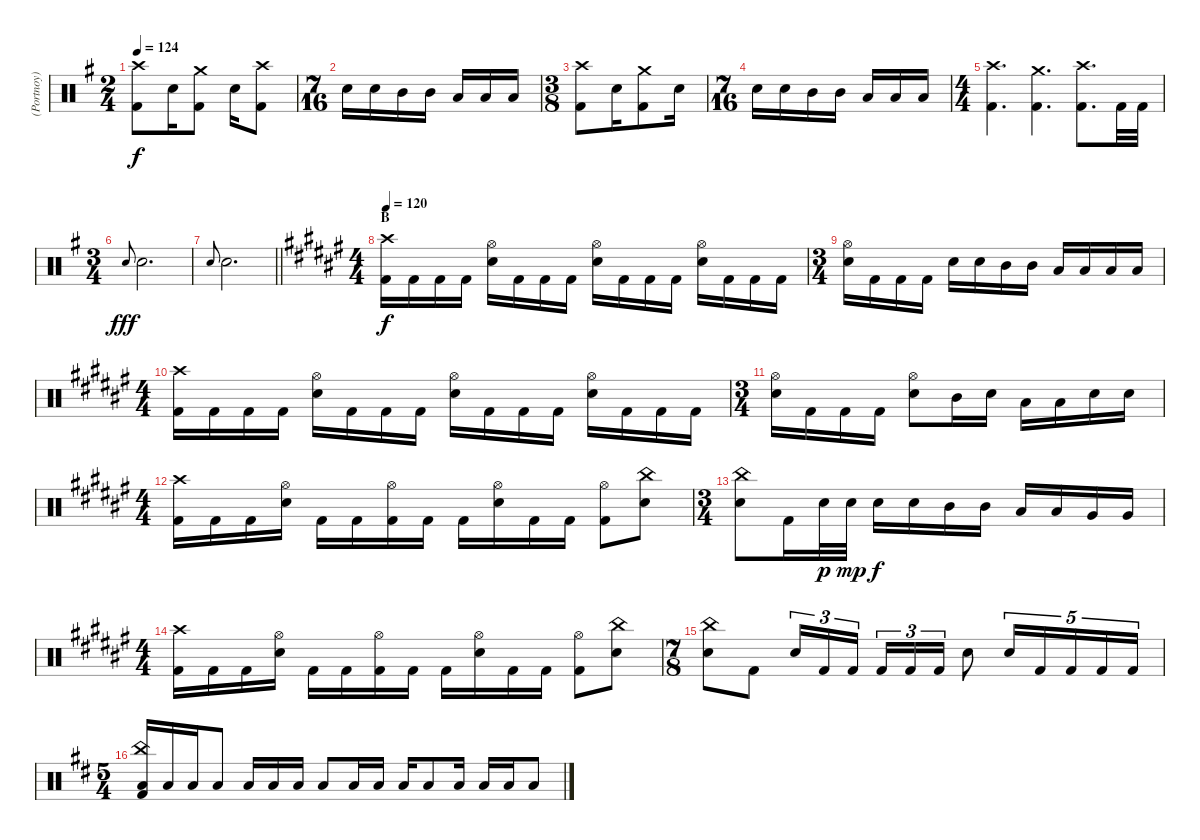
\track ("(Portnoy) Drums" "(Portnoy) ") {instrument percussion}
\staff {score}
\articulation defaults
\ts (2 4)
\tempo 124
\clef neutral
\ks g
("Crash high (hit)" "Kick (hit) 2").8{dy f} "Snare (hit) 2".16 ("Crash medium (hit)" "Kick (hit) 2").8 "Snare (hit) 2".16 ("Crash high (hit)" "Kick (hit) 2").8 |
\ts (7 16)
"Snare (hit) 2".16 "Snare (hit) 2".16 "Mid Tom (hit)".16 "Mid Tom (hit)".16 "Low Tom (hit)".16 "Low Tom (hit)".16 "Low Tom (hit)".16 |
\ts (3 8)
("Crash high (hit)" "Kick (hit) 2").8 "Snare (hit) 2".16 ("Crash medium (hit)" "Kick (hit) 2").8 "Snare (hit) 2".16 |
\ts (7 16)
"Snare (hit) 2".16 "Snare (hit) 2".16 "Mid Tom (hit)".16 "Mid Tom (hit)".16 "Low Tom (hit)".16 "Low Tom (hit)".16 "Low Tom (hit)".16 |
\ts (4 4)
("Crash high (hit)" "Kick (hit) 2").4{d} ("Crash medium (hit)" "Kick (hit) 2").4{d} ("Crash high (hit)" "Kick (hit) 2").8{d} "Kick (hit) 2".32 "Kick (hit) 2".32 |
\ts (3 4)
"Snare (hit) 2".8{gr onbeat dy fff} "Snare (hit) 2".2{d} |
\barLineRight lightlight "Snare (hit) 2".8{gr onbeat} "Snare (hit) 2".2{d}
|
\ts (4 4)
\section ("" "B")
\tempo 120
\ks f#
("Crash high (hit)" "Kick (hit) 2").16{dy f} "Kick (hit) 2".16 "Kick (hit) 2".16 "Kick (hit) 2".16 ("Hi-Hat (open)" "Snare (hit) 2").16 "Kick (hit) 2".16 "Kick (hit) 2".16 "Kick (hit) 2".16 ("Hi-Hat (open)" "Snare (hit) 2").16 "Kick (hit) 2".16 "Kick (hit) 2".16 "Kick (hit) 2".16 ("Hi-Hat (open)" "Snare (hit) 2").16 "Kick (hit) 2".16 "Kick (hit) 2".16 "Kick (hit) 2".16 |
\ts (3 4)
("Hi-Hat (open)" "Snare (hit) 2").16 "Kick (hit) 2".16 "Kick (hit) 2".16 "Kick (hit) 2".16 "Snare (hit) 2".16 "Snare (hit) 2".16 "Mid Tom (hit)".16 "Mid Tom (hit)".16 "Low Tom (hit)".16 "Low Tom (hit)".16 "Low Tom (hit)".16 "Low Tom (hit)".16 |
\ts (4 4)
("Crash high (hit)" "Kick (hit) 2").16 "Kick (hit) 2".16 "Kick (hit) 2".16 "Kick (hit) 2".16 ("Hi-Hat (open)" "Snare (hit) 2").16 "Kick (hit) 2".16 "Kick (hit) 2".16 "Kick (hit) 2".16 ("Hi-Hat (open)" "Snare (hit) 2").16 "Kick (hit) 2".16 "Kick (hit) 2".16 "Kick (hit) 2".16 ("Hi-Hat (open)" "Snare (hit) 2").16 "Kick (hit) 2".16 "Kick (hit) 2".16 "Kick (hit) 2".16 |
\ts (3 4)
("Hi-Hat (open)" "Snare (hit) 2").16 "Kick (hit) 2".16 "Kick (hit) 2".16 "Kick (hit) 2".16 ("Hi-Hat (open)" "Snare (hit) 2").8 "Mid Tom (hit)".16 "Snare (hit) 2".16 "Low Tom (hit)".16 "Low Tom (hit)".16 "Snare (hit) 2".16 "Snare (hit) 2".16 |
\ts (4 4)
("Crash high (hit)" "Kick (hit) 2").16 "Kick (hit) 2".16 "Kick (hit) 2".16 ("Hi-Hat (open)" "Snare (hit) 2").16 "Kick (hit) 2".16 "Kick (hit) 2".16 ("Hi-Hat (open)" "Kick (hit) 2").16 "Kick (hit) 2".16 "Kick (hit) 2".16 ("Hi-Hat (open)" "Snare (hit) 2").16 "Kick (hit) 2".16 "Kick (hit) 2".16 ("Hi-Hat (open)" "Kick (hit) 2").8 ("China (hit)" "Snare (hit) 2").8 |
\ts (3 4)
("China (hit)" "Snare (hit) 2").8 "Kick (hit) 2".16 "Snare (hit) 2".32{dy p} "Snare (hit) 2".32{dy mp} "Snare (hit) 2".16{dy f} "Snare (hit) 2".16 "Mid Tom (hit)".16 "Mid Tom (hit)".16 "Low Tom (hit)".16 "Low Tom (hit)".16 "Very Low Tom (hit)".16 "Very Low Tom (hit)".16 |
\ts (4 4)
("Crash high (hit)" "Kick (hit) 2").16 "Kick (hit) 2".16 "Kick (hit) 2".16 ("Hi-Hat (open)" "Snare (hit) 2").16 "Kick (hit) 2".16 "Kick (hit) 2".16 ("Hi-Hat (open)" "Kick (hit) 2").16 "Kick (hit) 2".16 "Kick (hit) 2".16 ("Hi-Hat (open)" "Snare (hit) 2").16 "Kick (hit) 2".16 "Kick (hit) 2".16 ("Hi-Hat (open)" "Kick (hit) 2").8 ("China (hit)" "Snare (hit) 2").8 |
\ts (7 8)
("China (hit)" "Snare (hit) 2").8 "Kick (hit) 2".8 "Snare (hit) 2".16{tu (3 2)} "Kick (hit) 2".16{tu (3 2)} "Kick (hit) 2".16{tu (3 2)} "Kick (hit) 2".16{tu (3 2)} "Kick (hit) 2".16{tu (3 2)} "Kick (hit) 2".16{tu (3 2)} "Snare (hit) 2".8 "Snare (hit) 2".16{tu (5 4)} "Kick (hit) 2".16{tu (5 4)} "Kick (hit) 2".16{tu (5 4)} "Kick (hit) 2".16{tu (5 4)} "Kick (hit) 2".16{tu (5 4)} |
\ts (5 4)
\ks bminor
("China (hit)" "Low Floor Tom (hit)" "Kick (hit) 2").16 "Low Floor Tom (hit)".16 "Low Floor Tom (hit)".16 "Low Floor Tom (hit)".8 "Low Floor Tom (hit)".16 "Low Floor Tom (hit)".16 "Low Floor Tom (hit)".16 "Low Floor Tom (hit)".8 "Low Floor Tom (hit)".16 "Low Floor Tom (hit)".16 "Low Floor Tom (hit)".16 "Low Floor Tom (hit)".8 "Low Floor Tom (hit)".16 "Low Floor Tom (hit)".16 "Low Floor Tom (hit)".16 "Low Floor Tom (hit)".8
